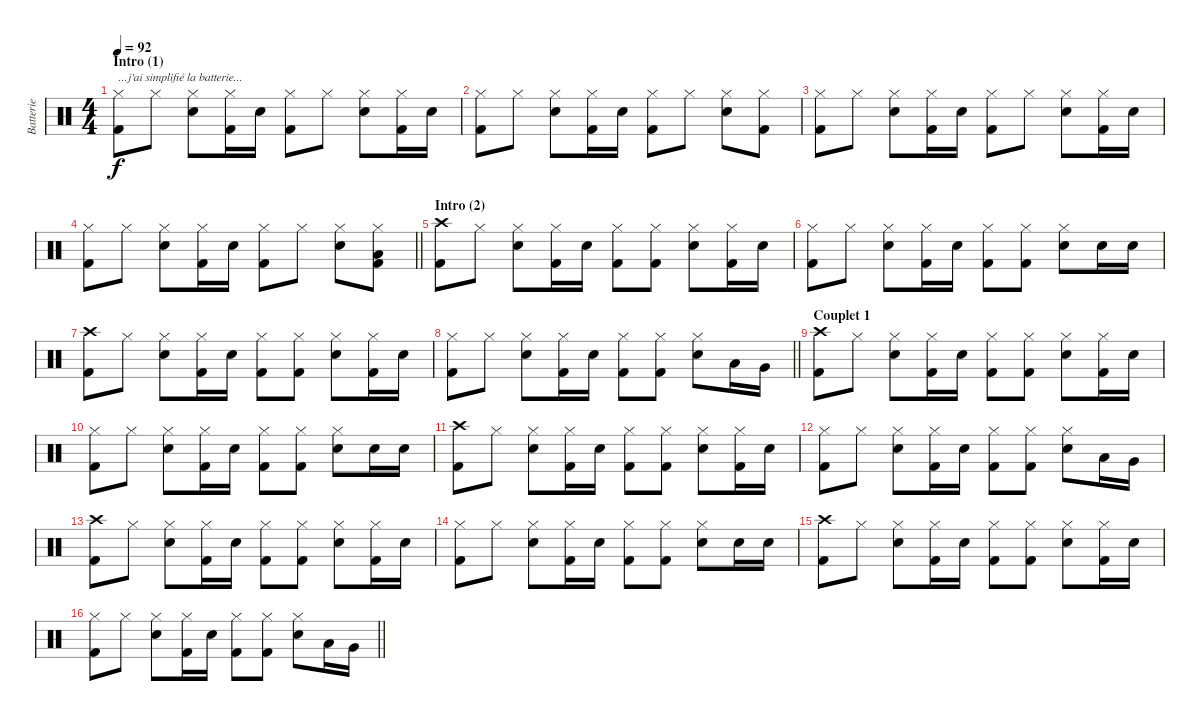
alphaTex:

\track ("Batterie" "Batterie") {instrument percussion}
\staff {score}
\articulation defaults
\ts (4 4)
\section ("" "Intro (1)")
\tempo 92
\clef neutral
\ks c
("Hi-Hat (closed)" "Kick (hit) 2").8{txt "...j'ai simplifié la batterie..." dy f} "Hi-Hat (closed)".8 ("Hi-Hat (closed)" "Electric Snare (hit)").8 ("Hi-Hat (closed)" "Kick (hit) 2").16 "Electric Snare (hit)".16 ("Hi-Hat (closed)" "Kick (hit) 2").8 "Hi-Hat (closed)".8 ("Hi-Hat (closed)" "Electric Snare (hit)").8 ("Hi-Hat (closed)" "Kick (hit) 2").16 "Electric Snare (hit)".16 |
("Hi-Hat (closed)" "Kick (hit) 2").8 "Hi-Hat (closed)".8 ("Hi-Hat (closed)" "Electric Snare (hit)").8 ("Hi-Hat (closed)" "Kick (hit) 2").16 "Electric Snare (hit)".16 ("Hi-Hat (closed)" "Kick (hit) 2").8 "Hi-Hat (closed)".8 ("Hi-Hat (closed)" "Electric Snare (hit)").8 ("Hi-Hat (closed)" "Kick (hit) 2").8 |
("Hi-Hat (closed)" "Kick (hit) 2").8 "Hi-Hat (closed)".8 ("Hi-Hat (closed)" "Electric Snare (hit)").8 ("Hi-Hat (closed)" "Kick (hit) 2").16 "Electric Snare (hit)".16 ("Hi-Hat (closed)" "Kick (hit) 2").8 "Hi-Hat (closed)".8 ("Hi-Hat (closed)" "Electric Snare (hit)").8 ("Hi-Hat (closed)" "Kick (hit) 2").16 "Electric Snare (hit)".16 |
\barLineRight lightlight
("Hi-Hat (closed)" "Kick (hit) 2").8 "Hi-Hat (closed)".8 ("Hi-Hat (closed)" "Electric Snare (hit)").8 ("Hi-Hat (closed)" "Kick (hit) 2").16 "Electric Snare (hit)".16 ("Hi-Hat (closed)" "Kick (hit) 2").8 "Hi-Hat (closed)".8 ("Hi-Hat (closed)" "Electric Snare (hit)").8 ("Hi-Hat (closed)" "Low Floor Tom (hit)" "Kick (hit) 2").8 |
\section ("" "Intro (2)")
("Crash high (hit)" "Kick (hit) 2").8 "Hi-Hat (closed)".8 ("Hi-Hat (closed)" "Electric Snare (hit)").8 ("Hi-Hat (closed)" "Kick (hit) 2").16 "Electric Snare (hit)".16 ("Hi-Hat (closed)" "Kick (hit) 2").8 ("Hi-Hat (closed)" "Kick (hit) 2").8 ("Hi-Hat (closed)" "Electric Snare (hit)").8 ("Hi-Hat (closed)" "Kick (hit) 2").16 "Electric Snare (hit)".16 |
("Hi-Hat (closed)" "Kick (hit) 2").8 "Hi-Hat (closed)".8 ("Hi-Hat (closed)" "Electric Snare (hit)").8 ("Hi-Hat (closed)" "Kick (hit) 2").16 "Electric Snare (hit)".16 ("Hi-Hat (closed)" "Kick (hit) 2").8 ("Hi-Hat (closed)" "Kick (hit) 2").8 ("Hi-Hat (closed)" "Electric Snare (hit)").8 "Electric Snare (hit)".16 "Electric Snare (hit)".16 |
("Crash high (hit)" "Kick (hit) 2").8 "Hi-Hat (closed)".8 ("Hi-Hat (closed)" "Electric Snare (hit)").8 ("Hi-Hat (closed)" "Kick (hit) 2").16 "Electric Snare (hit)".16 ("Hi-Hat (closed)" "Kick (hit) 2").8 ("Hi-Hat (closed)" "Kick (hit) 2").8 ("Hi-Hat (closed)" "Electric Snare (hit)").8 ("Hi-Hat (closed)" "Kick (hit) 2").16 "Electric Snare (hit)".16 |
\barLineRight lightlight
("Hi-Hat (closed)" "Kick (hit) 2").8 "Hi-Hat (closed)".8 ("Hi-Hat (closed)" "Electric Snare (hit)").8 ("Hi-Hat (closed)" "Kick (hit) 2").16 "Electric Snare (hit)".16 ("Hi-Hat (closed)" "Kick (hit) 2").8 ("Hi-Hat (closed)" "Kick (hit) 2").8 ("Hi-Hat (closed)" "Electric Snare (hit)").8 "Low Tom (hit)".16 "Very Low Tom (hit)".16 |
\section ("" "Couplet 1")
("Crash high (hit)" "Kick (hit) 2").8 "Hi-Hat (closed)".8 ("Hi-Hat (closed)" "Electric Snare (hit)").8 ("Hi-Hat (closed)" "Kick (hit) 2").16 "Electric Snare (hit)".16 ("Hi-Hat (closed)" "Kick (hit) 2").8 ("Hi-Hat (closed)" "Kick (hit) 2").8 ("Hi-Hat (closed)" "Electric Snare (hit)").8 ("Hi-Hat (closed)" "Kick (hit) 2").16 "Electric Snare (hit)".16 |
("Hi-Hat (closed)" "Kick (hit) 2").8 "Hi-Hat (closed)".8 ("Hi-Hat (closed)" "Electric Snare (hit)").8 ("Hi-Hat (closed)" "Kick (hit) 2").16 "Electric Snare (hit)".16 ("Hi-Hat (closed)" "Kick (hit) 2").8 ("Hi-Hat (closed)" "Kick (hit) 2").8 ("Hi-Hat (closed)" "Electric Snare (hit)").8 "Electric Snare (hit)".16 "Electric Snare (hit)".16 |
("Crash high (hit)" "Kick (hit) 2").8 "Hi-Hat (closed)".8 ("Hi-Hat (closed)" "Electric Snare (hit)").8 ("Hi-Hat (closed)" "Kick (hit) 2").16 "Electric Snare (hit)".16 ("Hi-Hat (closed)" "Kick (hit) 2").8 ("Hi-Hat (closed)" "Kick (hit) 2").8 ("Hi-Hat (closed)" "Electric Snare (hit)").8 ("Hi-Hat (closed)" "Kick (hit) 2").16 "Electric Snare (hit)".16 |
("Hi-Hat (closed)" "Kick (hit) 2").8 "Hi-Hat (closed)".8 ("Hi-Hat (closed)" "Electric Snare (hit)").8 ("Hi-Hat (closed)" "Kick (hit) 2").16 "Electric Snare (hit)".16 ("Hi-Hat (closed)" "Kick (hit) 2").8 ("Hi-Hat (closed)" "Kick (hit) 2").8 ("Hi-Hat (closed)" "Electric Snare (hit)").8 "Low Tom (hit)".16 "Very Low Tom (hit)".16 |
("Crash high (hit)" "Kick (hit) 2").8 "Hi-Hat (closed)".8 ("Hi-Hat (closed)" "Electric Snare (hit)").8 ("Hi-Hat (closed)" "Kick (hit) 2").16 "Electric Snare (hit)".16 ("Hi-Hat (closed)" "Kick (hit) 2").8 ("Hi-Hat (closed)" "Kick (hit) 2").8 ("Hi-Hat (closed)" "Electric Snare (hit)").8 ("Hi-Hat (closed)" "Kick (hit) 2").16 "Electric Snare (hit)".16 |
("Hi-Hat (closed)" "Kick (hit) 2").8 "Hi-Hat (closed)".8 ("Hi-Hat (closed)" "Electric Snare (hit)").8 ("Hi-Hat (closed)" "Kick (hit) 2").16 "Electric Snare (hit)".16 ("Hi-Hat (closed)" "Kick (hit) 2").8 ("Hi-Hat (closed)" "Kick (hit) 2").8 ("Hi-Hat (closed)" "Electric Snare (hit)").8 "Electric Snare (hit)".16 "Electric Snare (hit)".16 |
("Crash high (hit)" "Kick (hit) 2").8 "Hi-Hat (closed)".8 ("Hi-Hat (closed)" "Electric Snare (hit)").8 ("Hi-Hat (closed)" "Kick (hit) 2").16 "Electric Snare (hit)".16 ("Hi-Hat (closed)" "Kick (hit) 2").8 ("Hi-Hat (closed)" "Kick (hit) 2").8 ("Hi-Hat (closed)" "Electric Snare (hit)").8 ("Hi-Hat (closed)" "Kick (hit) 2").16 "Electric Snare (hit)".16 |
\barLineRight lightlight
("Hi-Hat (closed)" "Kick (hit) 2").8 "Hi-Hat (closed)".8 ("Hi-Hat (closed)" "Electric Snare (hit)").8 ("Hi-Hat (closed)" "Kick (hit) 2").16 "Electric Snare (hit)".16 ("Hi-Hat (closed)" "Kick (hit) 2").8 ("Hi-Hat (closed)" "Kick (hit) 2").8 ("Hi-Hat (closed)" "Electric Snare (hit)").8 "Low Tom (hit)".16 "Very Low Tom (hit)".16
